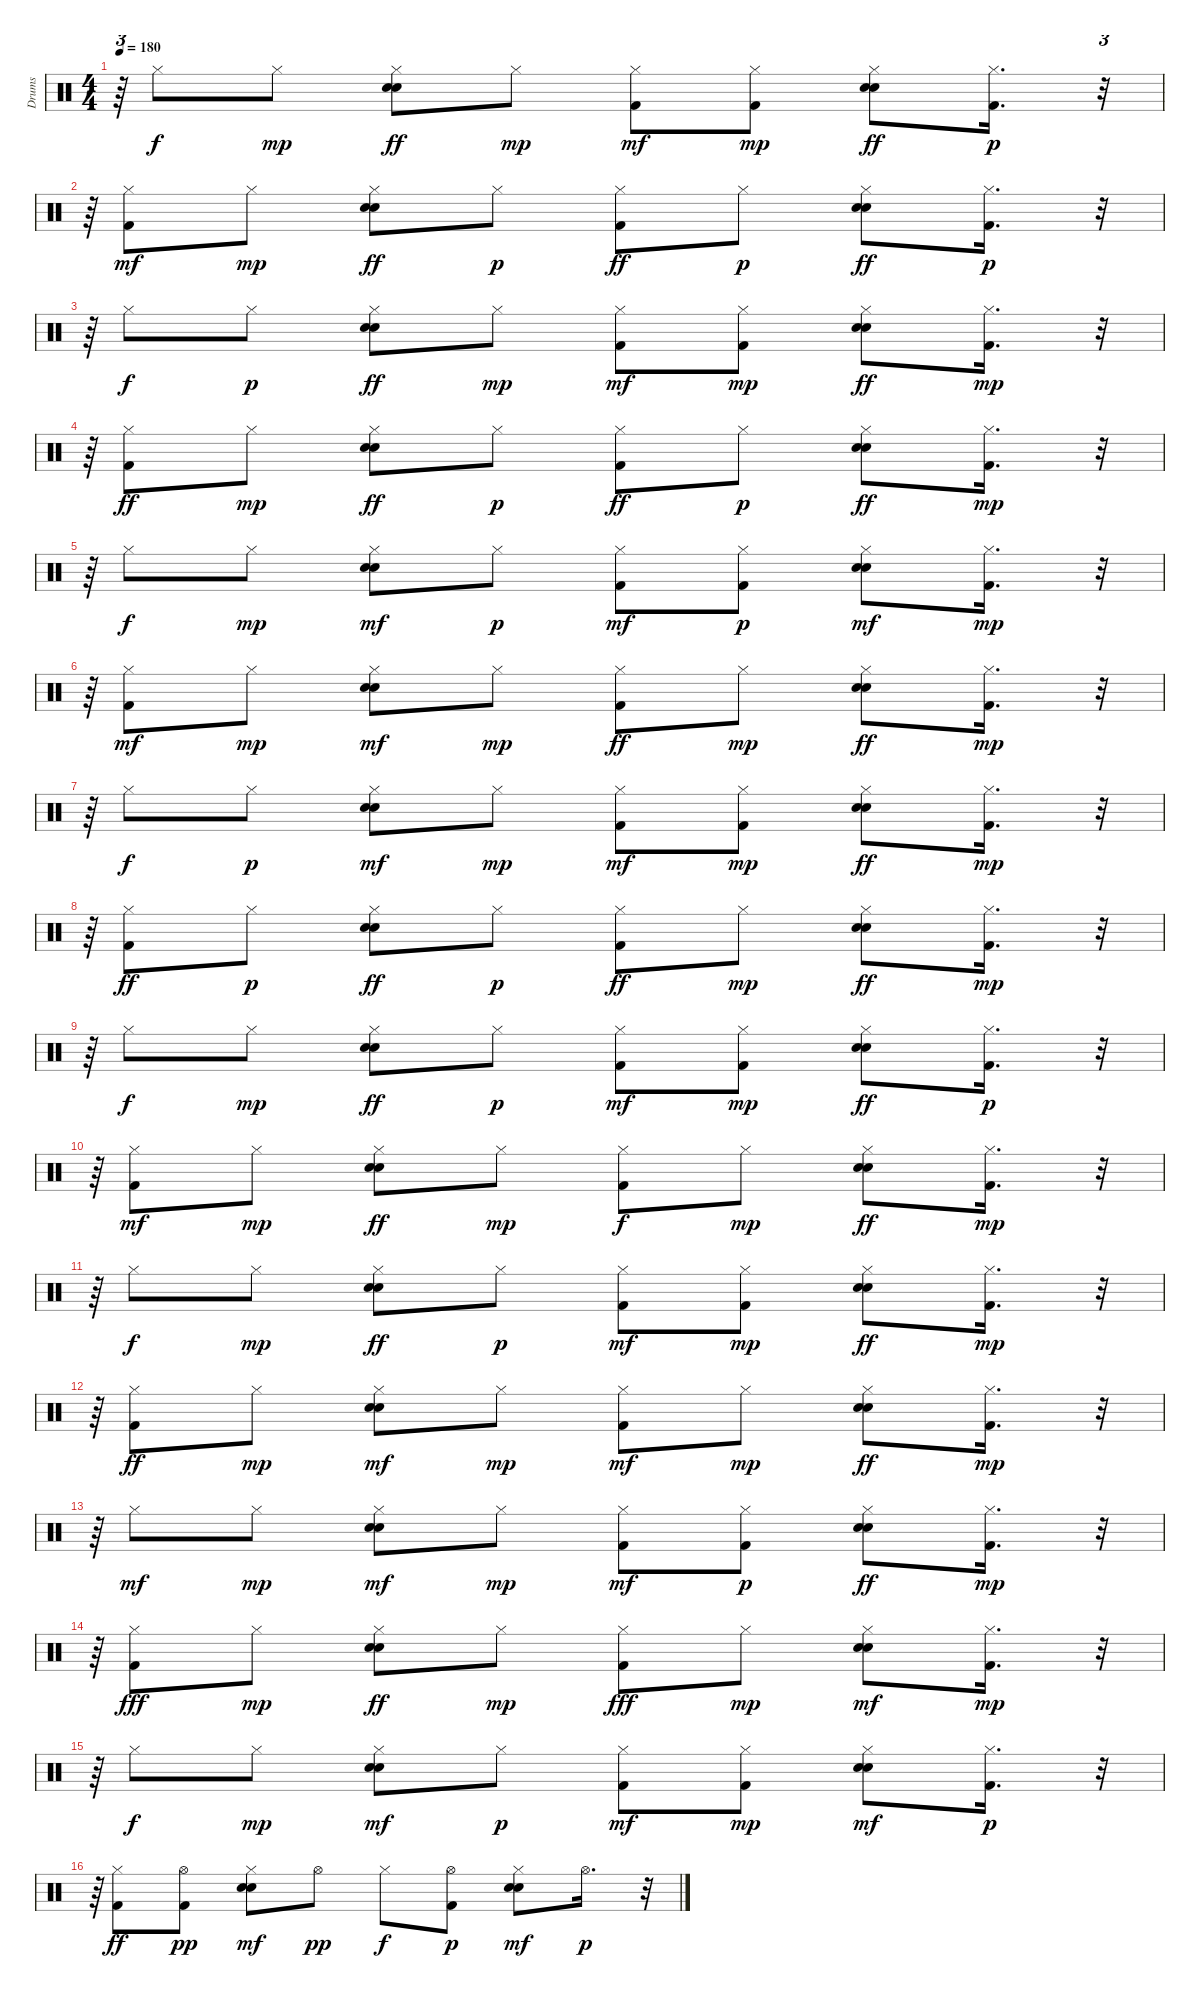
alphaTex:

\track ("Drums" "Drums") {instrument percussion}
\staff {score}
\articulation defaults
\ts (4 4)
\tempo 180
\clef neutral
\ks c
r.64{tu (3 2) dy mp} "Hi-Hat (closed)".8{dy f} "Hi-Hat (closed)".8{dy mp} ("Electric Snare (hit)" "Snare (hit) 2" "Hi-Hat (closed)").8{dy ff} "Hi-Hat (closed)".8{dy mp} ("Kick (hit) 2" "Hi-Hat (closed)").8{dy mf} ("Kick (hit) 2" "Hi-Hat (closed)").8{dy mp} ("Electric Snare (hit)" "Snare (hit) 2" "Hi-Hat (closed)").8{dy ff} ("Kick (hit) 2" "Hi-Hat (closed)").16{d dy p} r.32{tu (3 2)} |
r.64{tu (3 2)} ("Kick (hit) 2" "Hi-Hat (closed)").8{dy mf} "Hi-Hat (closed)".8{dy mp} ("Electric Snare (hit)" "Snare (hit) 2" "Hi-Hat (closed)").8{dy ff} "Hi-Hat (closed)".8{dy p} ("Kick (hit) 2" "Hi-Hat (closed)").8{dy ff} "Hi-Hat (closed)".8{dy p} ("Electric Snare (hit)" "Snare (hit) 2" "Hi-Hat (closed)").8{dy ff} ("Kick (hit) 2" "Hi-Hat (closed)").16{d dy p} r.32{tu (3 2)} |
r.64{tu (3 2)} "Hi-Hat (closed)".8{dy f} "Hi-Hat (closed)".8{dy p} ("Electric Snare (hit)" "Snare (hit) 2" "Hi-Hat (closed)").8{dy ff} "Hi-Hat (closed)".8{dy mp} ("Kick (hit) 2" "Hi-Hat (closed)").8{dy mf} ("Kick (hit) 2" "Hi-Hat (closed)").8{dy mp} ("Electric Snare (hit)" "Snare (hit) 2" "Hi-Hat (closed)").8{dy ff} ("Kick (hit) 2" "Hi-Hat (closed)").16{d dy mp} r.32{tu (3 2)} |
r.64{tu (3 2)} ("Kick (hit) 2" "Hi-Hat (closed)").8{dy ff} "Hi-Hat (closed)".8{dy mp} ("Electric Snare (hit)" "Snare (hit) 2" "Hi-Hat (closed)").8{dy ff} "Hi-Hat (closed)".8{dy p} ("Kick (hit) 2" "Hi-Hat (closed)").8{dy ff} "Hi-Hat (closed)".8{dy p} ("Electric Snare (hit)" "Snare (hit) 2" "Hi-Hat (closed)").8{dy ff} ("Kick (hit) 2" "Hi-Hat (closed)").16{d dy mp} r.32{tu (3 2)} |
r.64{tu (3 2)} "Hi-Hat (closed)".8{dy f} "Hi-Hat (closed)".8{dy mp} ("Electric Snare (hit)" "Snare (hit) 2" "Hi-Hat (closed)").8{dy mf} "Hi-Hat (closed)".8{dy p} ("Kick (hit) 2" "Hi-Hat (closed)").8{dy mf} ("Kick (hit) 2" "Hi-Hat (closed)").8{dy p} ("Electric Snare (hit)" "Snare (hit) 2" "Hi-Hat (closed)").8{dy mf} ("Kick (hit) 2" "Hi-Hat (closed)").16{d dy mp} r.32{tu (3 2)} |
r.64{tu (3 2)} ("Kick (hit) 2" "Hi-Hat (closed)").8{dy mf} "Hi-Hat (closed)".8{dy mp} ("Electric Snare (hit)" "Snare (hit) 2" "Hi-Hat (closed)").8{dy mf} "Hi-Hat (closed)".8{dy mp} ("Kick (hit) 2" "Hi-Hat (closed)").8{dy ff} "Hi-Hat (closed)".8{dy mp} ("Electric Snare (hit)" "Snare (hit) 2" "Hi-Hat (closed)").8{dy ff} ("Kick (hit) 2" "Hi-Hat (closed)").16{d dy mp} r.32{tu (3 2)} |
r.64{tu (3 2)} "Hi-Hat (closed)".8{dy f} "Hi-Hat (closed)".8{dy p} ("Electric Snare (hit)" "Snare (hit) 2" "Hi-Hat (closed)").8{dy mf} "Hi-Hat (closed)".8{dy mp} ("Kick (hit) 2" "Hi-Hat (closed)").8{dy mf} ("Kick (hit) 2" "Hi-Hat (closed)").8{dy mp} ("Electric Snare (hit)" "Snare (hit) 2" "Hi-Hat (closed)").8{dy ff} ("Kick (hit) 2" "Hi-Hat (closed)").16{d dy mp} r.32{tu (3 2)} |
r.64{tu (3 2)} ("Kick (hit) 2" "Hi-Hat (closed)").8{dy ff} "Hi-Hat (closed)".8{dy p} ("Electric Snare (hit)" "Snare (hit) 2" "Hi-Hat (closed)").8{dy ff} "Hi-Hat (closed)".8{dy p} ("Kick (hit) 2" "Hi-Hat (closed)").8{dy ff} "Hi-Hat (closed)".8{dy mp} ("Electric Snare (hit)" "Snare (hit) 2" "Hi-Hat (closed)").8{dy ff} ("Kick (hit) 2" "Hi-Hat (closed)").16{d dy mp} r.32{tu (3 2)} |
r.64{tu (3 2)} "Hi-Hat (closed)".8{dy f} "Hi-Hat (closed)".8{dy mp} ("Electric Snare (hit)" "Snare (hit) 2" "Hi-Hat (closed)").8{dy ff} "Hi-Hat (closed)".8{dy p} ("Kick (hit) 2" "Hi-Hat (closed)").8{dy mf} ("Kick (hit) 2" "Hi-Hat (closed)").8{dy mp} ("Electric Snare (hit)" "Snare (hit) 2" "Hi-Hat (closed)").8{dy ff} ("Kick (hit) 2" "Hi-Hat (closed)").16{d dy p} r.32{tu (3 2)} |
r.64{tu (3 2)} ("Kick (hit) 2" "Hi-Hat (closed)").8{dy mf} "Hi-Hat (closed)".8{dy mp} ("Electric Snare (hit)" "Snare (hit) 2" "Hi-Hat (closed)").8{dy ff} "Hi-Hat (closed)".8{dy mp} ("Kick (hit) 2" "Hi-Hat (closed)").8{dy f} "Hi-Hat (closed)".8{dy mp} ("Electric Snare (hit)" "Snare (hit) 2" "Hi-Hat (closed)").8{dy ff} ("Kick (hit) 2" "Hi-Hat (closed)").16{d dy mp} r.32{tu (3 2)} |
r.64{tu (3 2)} "Hi-Hat (closed)".8{dy f} "Hi-Hat (closed)".8{dy mp} ("Electric Snare (hit)" "Snare (hit) 2" "Hi-Hat (closed)").8{dy ff} "Hi-Hat (closed)".8{dy p} ("Kick (hit) 2" "Hi-Hat (closed)").8{dy mf} ("Kick (hit) 2" "Hi-Hat (closed)").8{dy mp} ("Electric Snare (hit)" "Snare (hit) 2" "Hi-Hat (closed)").8{dy ff} ("Kick (hit) 2" "Hi-Hat (closed)").16{d dy mp} r.32{tu (3 2)} |
r.64{tu (3 2)} ("Kick (hit) 2" "Hi-Hat (closed)").8{dy ff} "Hi-Hat (closed)".8{dy mp} ("Electric Snare (hit)" "Snare (hit) 2" "Hi-Hat (closed)").8{dy mf} "Hi-Hat (closed)".8{dy mp} ("Kick (hit) 2" "Hi-Hat (closed)").8{dy mf} "Hi-Hat (closed)".8{dy mp} ("Electric Snare (hit)" "Snare (hit) 2" "Hi-Hat (closed)").8{dy ff} ("Kick (hit) 2" "Hi-Hat (closed)").16{d dy mp} r.32{tu (3 2)} |
r.64{tu (3 2)} "Hi-Hat (closed)".8{dy mf} "Hi-Hat (closed)".8{dy mp} ("Electric Snare (hit)" "Snare (hit) 2" "Hi-Hat (closed)").8{dy mf} "Hi-Hat (closed)".8{dy mp} ("Kick (hit) 2" "Hi-Hat (closed)").8{dy mf} ("Kick (hit) 2" "Hi-Hat (closed)").8{dy p} ("Electric Snare (hit)" "Snare (hit) 2" "Hi-Hat (closed)").8{dy ff} ("Kick (hit) 2" "Hi-Hat (closed)").16{d dy mp} r.32{tu (3 2)} |
r.64{tu (3 2)} ("Kick (hit) 2" "Hi-Hat (closed)").8{dy fff} "Hi-Hat (closed)".8{dy mp} ("Electric Snare (hit)" "Snare (hit) 2" "Hi-Hat (closed)").8{dy ff} "Hi-Hat (closed)".8{dy mp} ("Kick (hit) 2" "Hi-Hat (closed)").8{dy fff} "Hi-Hat (closed)".8{dy mp} ("Electric Snare (hit)" "Snare (hit) 2" "Hi-Hat (closed)").8{dy mf} ("Kick (hit) 2" "Hi-Hat (closed)").16{d dy mp} r.32{tu (3 2)} |
r.64{tu (3 2)} "Hi-Hat (closed)".8{dy f} "Hi-Hat (closed)".8{dy mp} ("Electric Snare (hit)" "Snare (hit) 2" "Hi-Hat (closed)").8{dy mf} "Hi-Hat (closed)".8{dy p} ("Kick (hit) 2" "Hi-Hat (closed)").8{dy mf} ("Kick (hit) 2" "Hi-Hat (closed)").8{dy mp} ("Electric Snare (hit)" "Snare (hit) 2" "Hi-Hat (closed)").8{dy mf} ("Kick (hit) 2" "Hi-Hat (closed)").16{d dy p} r.32{tu (3 2)} |
r.64{tu (3 2)} ("Kick (hit) 2" "Hi-Hat (closed)").8{dy ff} ("Kick (hit) 2" "Hi-Hat (open)").8{dy pp} ("Electric Snare (hit)" "Snare (hit) 2" "Hi-Hat (closed)").8{dy mf} "Hi-Hat (open)".8{dy pp} "Hi-Hat (closed)".8{dy f} ("Kick (hit) 2" "Hi-Hat (open)").8{dy p} ("Electric Snare (hit)" "Snare (hit) 2" "Hi-Hat (closed)").8{dy mf} "Hi-Hat (open)".16{d dy p} r.32{tu (3 2)}
